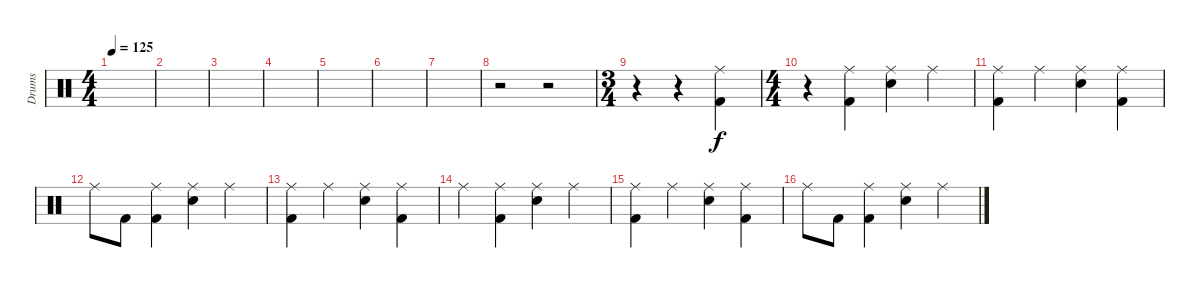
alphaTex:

\track ("Drums" "Drums") {instrument percussion}
\staff {score}
\articulation defaults
\ts (4 4)
\tempo 125
\clef neutral
\ks c
|
|
|
|
|
|
|
r.2 r.2 |
\ts (3 4)
r.4 r.4 ("Ride (middle)" "Kick (hit) 2").4 |
\ts (4 4)
r.4 ("Ride (middle)" "Kick (hit) 2").4 ("Ride (middle)" "Electric Snare (hit)").4 "Ride (middle)".4 |
("Ride (middle)" "Kick (hit) 2").4 "Ride (middle)".4 ("Ride (middle)" "Electric Snare (hit)").4 ("Ride (middle)" "Kick (hit) 2").4 |
"Ride (middle)".8 "Kick (hit) 2".8 ("Ride (middle)" "Kick (hit) 2").4 ("Ride (middle)" "Electric Snare (hit)").4 "Ride (middle)".4 |
("Ride (middle)" "Kick (hit) 2").4 "Ride (middle)".4 ("Ride (middle)" "Electric Snare (hit)").4 ("Ride (middle)" "Kick (hit) 2").4 |
"Ride (middle)".4 ("Ride (middle)" "Kick (hit) 2").4 ("Ride (middle)" "Electric Snare (hit)").4 "Ride (middle)".4 |
("Ride (middle)" "Kick (hit) 2").4 "Ride (middle)".4 ("Ride (middle)" "Electric Snare (hit)").4 ("Ride (middle)" "Kick (hit) 2").4 |
"Ride (middle)".8 "Kick (hit) 2".8 ("Ride (middle)" "Kick (hit) 2").4 ("Ride (middle)" "Electric Snare (hit)").4 "Ride (middle)".4
